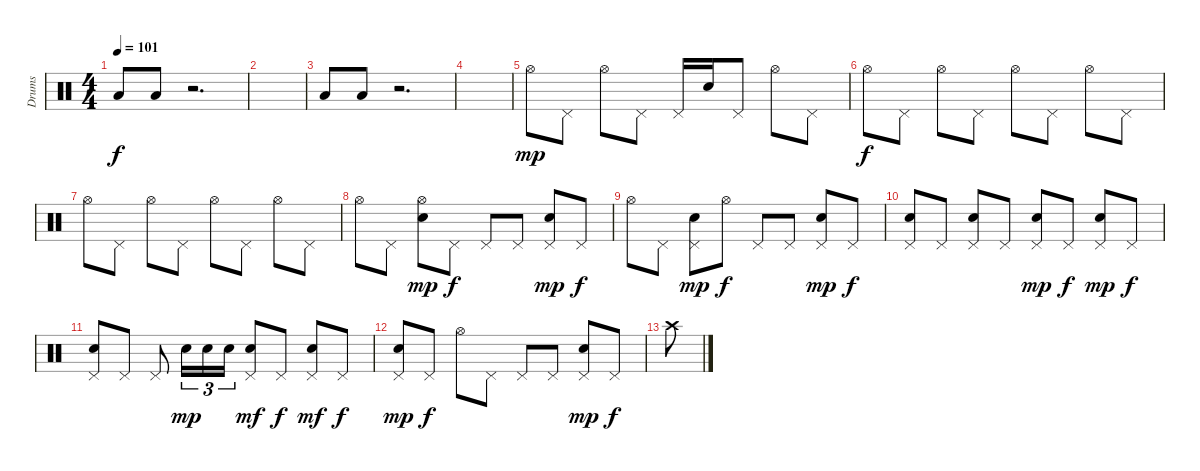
\track ("Drums" "Drums") {instrument percussion}
\staff {score}
\articulation defaults
\ts (4 4)
\tempo 101
\clef neutral
\ks c "Low Tom (hit)".8{dy f} "Low Floor Tom (hit)".8
r.2{d} |
|
"Low Tom (hit)".8 "Low Floor Tom (hit)".8 r.2{d} |
|
"Hi-Hat (open)".8{dy mp} "Pedal Hi-Hat (hit)".8 "Hi-Hat (open)".8 "Pedal Hi-Hat (hit)".8 "Pedal Hi-Hat (hit)".16 "Electric Snare (hit)".16 "Pedal Hi-Hat (hit)".8 "Hi-Hat (open)".8 "Pedal Hi-Hat (hit)".8 |
"Hi-Hat (open)".8{dy f} "Pedal Hi-Hat (hit)".8 "Hi-Hat (open)".8 "Pedal Hi-Hat (hit)".8 "Hi-Hat (open)".8 "Pedal Hi-Hat (hit)".8 "Hi-Hat (open)".8 "Pedal Hi-Hat (hit)".8 |
"Hi-Hat (open)".8 "Pedal Hi-Hat (hit)".8 "Hi-Hat (open)".8 "Pedal Hi-Hat (hit)".8 "Hi-Hat (open)".8 "Pedal Hi-Hat (hit)".8 "Hi-Hat (open)".8 "Pedal Hi-Hat (hit)".8 |
"Hi-Hat (open)".8 "Pedal Hi-Hat (hit)".8 ("Hi-Hat (open)" "Electric Snare (hit)").8{dy mp} "Pedal Hi-Hat (hit)".8{dy f} "Pedal Hi-Hat (hit)".8 "Pedal Hi-Hat (hit)".8 ("Pedal Hi-Hat (hit)" "Electric Snare (hit)").8{dy mp} "Pedal Hi-Hat (hit)".8{dy f} |
"Hi-Hat (open)".8 "Pedal Hi-Hat (hit)".8 ("Pedal Hi-Hat (hit)" "Electric Snare (hit)").8{dy mp} "Hi-Hat (open)".8{dy f} "Pedal Hi-Hat (hit)".8 "Pedal Hi-Hat (hit)".8 ("Pedal Hi-Hat (hit)" "Electric Snare (hit)").8{dy mp} "Pedal Hi-Hat (hit)".8{dy f} |
("Pedal Hi-Hat (hit)" "Electric Snare (hit)").8 "Pedal Hi-Hat (hit)".8 ("Pedal Hi-Hat (hit)" "Electric Snare (hit)").8 "Pedal Hi-Hat (hit)".8 ("Pedal Hi-Hat (hit)" "Electric Snare (hit)").8{dy mp} "Pedal Hi-Hat (hit)".8{dy f} ("Pedal Hi-Hat (hit)" "Electric Snare (hit)").8{dy mp} "Pedal Hi-Hat (hit)".8{dy f} |
("Pedal Hi-Hat (hit)" "Electric Snare (hit)").8 "Pedal Hi-Hat (hit)".8 "Pedal Hi-Hat (hit)".8 "Electric Snare (hit)".16{tu (3 2) dy mp} "Electric Snare (hit)".16{tu (3 2)} "Electric Snare (hit)".16{tu (3 2)} ("Pedal Hi-Hat (hit)" "Electric Snare (hit)").8{dy mf} "Pedal Hi-Hat (hit)".8{dy f} ("Pedal Hi-Hat (hit)" "Electric Snare (hit)").8{dy mf} "Pedal Hi-Hat (hit)".8{dy f} |
("Pedal Hi-Hat (hit)" "Electric Snare (hit)").8{dy mp} "Pedal Hi-Hat (hit)".8{dy f} "Hi-Hat (open)".8 "Pedal Hi-Hat (hit)".8 "Pedal Hi-Hat (hit)".8 "Pedal Hi-Hat (hit)".8 ("Pedal Hi-Hat (hit)" "Electric Snare (hit)").8{dy mp} "Pedal Hi-Hat (hit)".8{dy f} |
"Crash high (hit)".8
